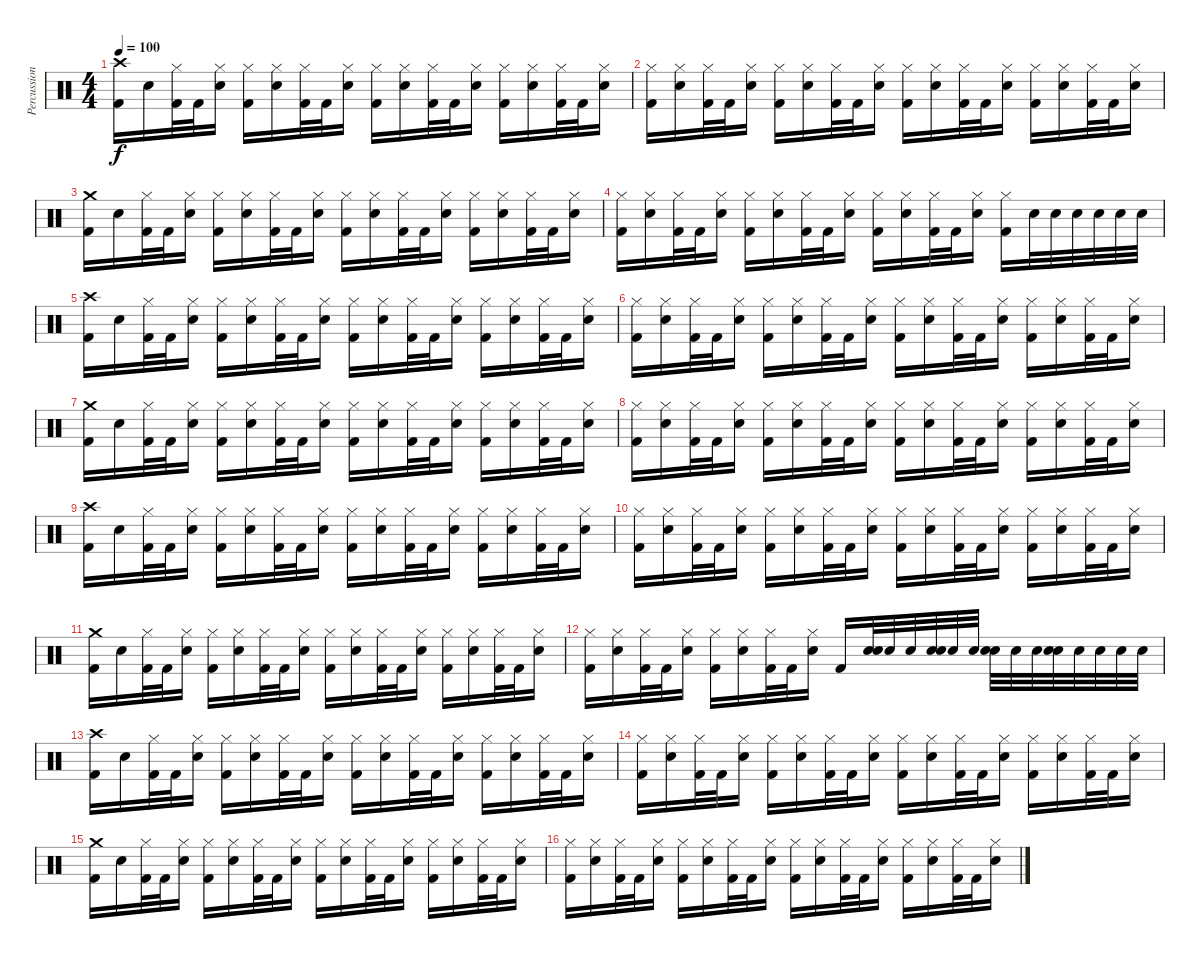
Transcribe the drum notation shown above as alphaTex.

\track ("Percussion" "Percussion") {instrument percussion}
\staff {score}
\articulation defaults
\ts (4 4)
\tempo 100
\clef neutral
\ks c
("Crash high (hit)" "Kick (hit) 2").16{dy f} "Snare (hit) 2".16 ("Hi-Hat (closed)" "Kick (hit) 2").32 "Kick (hit) 2".32 ("Hi-Hat (closed)" "Snare (hit) 2").16 ("Hi-Hat (closed)" "Kick (hit) 2").16 ("Hi-Hat (closed)" "Snare (hit) 2").16 ("Hi-Hat (closed)" "Kick (hit) 2").32 "Kick (hit) 2".32 ("Hi-Hat (closed)" "Snare (hit) 2").16 ("Hi-Hat (closed)" "Kick (hit) 2").16 ("Hi-Hat (closed)" "Snare (hit) 2").16 ("Hi-Hat (closed)" "Kick (hit) 2").32 "Kick (hit) 2".32 ("Hi-Hat (closed)" "Snare (hit) 2").16 ("Hi-Hat (closed)" "Kick (hit) 2").16 ("Hi-Hat (closed)" "Snare (hit) 2").16 ("Hi-Hat (closed)" "Kick (hit) 2").32 "Kick (hit) 2".32 ("Hi-Hat (closed)" "Snare (hit) 2").16 |
("Hi-Hat (closed)" "Kick (hit) 2").16 ("Hi-Hat (closed)" "Snare (hit) 2").16 ("Hi-Hat (closed)" "Kick (hit) 2").32 "Kick (hit) 2".32 ("Hi-Hat (closed)" "Snare (hit) 2").16 ("Hi-Hat (closed)" "Kick (hit) 2").16 ("Hi-Hat (closed)" "Snare (hit) 2").16 ("Hi-Hat (closed)" "Kick (hit) 2").32 "Kick (hit) 2".32 ("Hi-Hat (closed)" "Snare (hit) 2").16 ("Hi-Hat (closed)" "Kick (hit) 2").16 ("Hi-Hat (closed)" "Snare (hit) 2").16 ("Hi-Hat (closed)" "Kick (hit) 2").32 "Kick (hit) 2".32 ("Hi-Hat (closed)" "Snare (hit) 2").16 ("Hi-Hat (closed)" "Kick (hit) 2").16 ("Hi-Hat (closed)" "Snare (hit) 2").16 ("Hi-Hat (closed)" "Kick (hit) 2").32 "Kick (hit) 2".32 ("Hi-Hat (closed)" "Snare (hit) 2").16 |
("Crash medium (hit)" "Kick (hit) 2").16 "Snare (hit) 2".16 ("Hi-Hat (closed)" "Kick (hit) 2").32 "Kick (hit) 2".32 ("Hi-Hat (closed)" "Snare (hit) 2").16 ("Hi-Hat (closed)" "Kick (hit) 2").16 ("Hi-Hat (closed)" "Snare (hit) 2").16 ("Hi-Hat (closed)" "Kick (hit) 2").32 "Kick (hit) 2".32 ("Hi-Hat (closed)" "Snare (hit) 2").16 ("Hi-Hat (closed)" "Kick (hit) 2").16 ("Hi-Hat (closed)" "Snare (hit) 2").16 ("Hi-Hat (closed)" "Kick (hit) 2").32 "Kick (hit) 2".32 ("Hi-Hat (closed)" "Snare (hit) 2").16 ("Hi-Hat (closed)" "Kick (hit) 2").16 ("Hi-Hat (closed)" "Snare (hit) 2").16 ("Hi-Hat (closed)" "Kick (hit) 2").32 "Kick (hit) 2".32 ("Hi-Hat (closed)" "Snare (hit) 2").16 |
("Hi-Hat (closed)" "Kick (hit) 2").16 ("Hi-Hat (closed)" "Snare (hit) 2").16 ("Hi-Hat (closed)" "Kick (hit) 2").32 "Kick (hit) 2".32 ("Hi-Hat (closed)" "Snare (hit) 2").16 ("Hi-Hat (closed)" "Kick (hit) 2").16 ("Hi-Hat (closed)" "Snare (hit) 2").16 ("Hi-Hat (closed)" "Kick (hit) 2").32 "Kick (hit) 2".32 ("Hi-Hat (closed)" "Snare (hit) 2").16 ("Hi-Hat (closed)" "Kick (hit) 2").16 ("Hi-Hat (closed)" "Snare (hit) 2").16 ("Hi-Hat (closed)" "Kick (hit) 2").32 "Kick (hit) 2".32 ("Hi-Hat (closed)" "Snare (hit) 2").16 ("Hi-Hat (closed)" "Kick (hit) 2").16 "Snare (hit) 2".32 "Snare (hit) 2".32 "Snare (hit) 2".32 "Snare (hit) 2".32 "Snare (hit) 2".32 "Snare (hit) 2".32 |
("Crash high (hit)" "Kick (hit) 2").16 "Snare (hit) 2".16 ("Hi-Hat (closed)" "Kick (hit) 2").32 "Kick (hit) 2".32 ("Hi-Hat (closed)" "Snare (hit) 2").16 ("Hi-Hat (closed)" "Kick (hit) 2").16 ("Hi-Hat (closed)" "Snare (hit) 2").16 ("Hi-Hat (closed)" "Kick (hit) 2").32 "Kick (hit) 2".32 ("Hi-Hat (closed)" "Snare (hit) 2").16 ("Hi-Hat (closed)" "Kick (hit) 2").16 ("Hi-Hat (closed)" "Snare (hit) 2").16 ("Hi-Hat (closed)" "Kick (hit) 2").32 "Kick (hit) 2".32 ("Hi-Hat (closed)" "Snare (hit) 2").16 ("Hi-Hat (closed)" "Kick (hit) 2").16 ("Hi-Hat (closed)" "Snare (hit) 2").16 ("Hi-Hat (closed)" "Kick (hit) 2").32 "Kick (hit) 2".32 ("Hi-Hat (closed)" "Snare (hit) 2").16 |
("Hi-Hat (closed)" "Kick (hit) 2").16 ("Hi-Hat (closed)" "Snare (hit) 2").16 ("Hi-Hat (closed)" "Kick (hit) 2").32 "Kick (hit) 2".32 ("Hi-Hat (closed)" "Snare (hit) 2").16 ("Hi-Hat (closed)" "Kick (hit) 2").16 ("Hi-Hat (closed)" "Snare (hit) 2").16 ("Hi-Hat (closed)" "Kick (hit) 2").32 "Kick (hit) 2".32 ("Hi-Hat (closed)" "Snare (hit) 2").16 ("Hi-Hat (closed)" "Kick (hit) 2").16 ("Hi-Hat (closed)" "Snare (hit) 2").16 ("Hi-Hat (closed)" "Kick (hit) 2").32 "Kick (hit) 2".32 ("Hi-Hat (closed)" "Snare (hit) 2").16 ("Hi-Hat (closed)" "Kick (hit) 2").16 ("Hi-Hat (closed)" "Snare (hit) 2").16 ("Hi-Hat (closed)" "Kick (hit) 2").32 "Kick (hit) 2".32 ("Hi-Hat (closed)" "Snare (hit) 2").16 |
("Crash medium (hit)" "Kick (hit) 2").16 "Snare (hit) 2".16 ("Hi-Hat (closed)" "Kick (hit) 2").32 "Kick (hit) 2".32 ("Hi-Hat (closed)" "Snare (hit) 2").16 ("Hi-Hat (closed)" "Kick (hit) 2").16 ("Hi-Hat (closed)" "Snare (hit) 2").16 ("Hi-Hat (closed)" "Kick (hit) 2").32 "Kick (hit) 2".32 ("Hi-Hat (closed)" "Snare (hit) 2").16 ("Hi-Hat (closed)" "Kick (hit) 2").16 ("Hi-Hat (closed)" "Snare (hit) 2").16 ("Hi-Hat (closed)" "Kick (hit) 2").32 "Kick (hit) 2".32 ("Hi-Hat (closed)" "Snare (hit) 2").16 ("Hi-Hat (closed)" "Kick (hit) 2").16 ("Hi-Hat (closed)" "Snare (hit) 2").16 ("Hi-Hat (closed)" "Kick (hit) 2").32 "Kick (hit) 2".32 ("Hi-Hat (closed)" "Snare (hit) 2").16 |
("Hi-Hat (closed)" "Kick (hit) 2").16 ("Hi-Hat (closed)" "Snare (hit) 2").16 ("Hi-Hat (closed)" "Kick (hit) 2").32 "Kick (hit) 2".32 ("Hi-Hat (closed)" "Snare (hit) 2").16 ("Hi-Hat (closed)" "Kick (hit) 2").16 ("Hi-Hat (closed)" "Snare (hit) 2").16 ("Hi-Hat (closed)" "Kick (hit) 2").32 "Kick (hit) 2".32 ("Hi-Hat (closed)" "Snare (hit) 2").16 ("Hi-Hat (closed)" "Kick (hit) 2").16 ("Hi-Hat (closed)" "Snare (hit) 2").16 ("Hi-Hat (closed)" "Kick (hit) 2").32 "Kick (hit) 2".32 ("Hi-Hat (closed)" "Snare (hit) 2").16 ("Hi-Hat (closed)" "Kick (hit) 2").16 ("Hi-Hat (closed)" "Snare (hit) 2").16 ("Hi-Hat (closed)" "Kick (hit) 2").32 "Kick (hit) 2".32 ("Hi-Hat (closed)" "Snare (hit) 2").16 |
("Crash high (hit)" "Kick (hit) 2").16 "Snare (hit) 2".16 ("Hi-Hat (closed)" "Kick (hit) 2").32 "Kick (hit) 2".32 ("Hi-Hat (closed)" "Snare (hit) 2").16 ("Hi-Hat (closed)" "Kick (hit) 2").16 ("Hi-Hat (closed)" "Snare (hit) 2").16 ("Hi-Hat (closed)" "Kick (hit) 2").32 "Kick (hit) 2".32 ("Hi-Hat (closed)" "Snare (hit) 2").16 ("Hi-Hat (closed)" "Kick (hit) 2").16 ("Hi-Hat (closed)" "Snare (hit) 2").16 ("Hi-Hat (closed)" "Kick (hit) 2").32 "Kick (hit) 2".32 ("Hi-Hat (closed)" "Snare (hit) 2").16 ("Hi-Hat (closed)" "Kick (hit) 2").16 ("Hi-Hat (closed)" "Snare (hit) 2").16 ("Hi-Hat (closed)" "Kick (hit) 2").32 "Kick (hit) 2".32 ("Hi-Hat (closed)" "Snare (hit) 2").16 |
("Hi-Hat (closed)" "Kick (hit) 2").16 ("Hi-Hat (closed)" "Snare (hit) 2").16 ("Hi-Hat (closed)" "Kick (hit) 2").32 "Kick (hit) 2".32 ("Hi-Hat (closed)" "Snare (hit) 2").16 ("Hi-Hat (closed)" "Kick (hit) 2").16 ("Hi-Hat (closed)" "Snare (hit) 2").16 ("Hi-Hat (closed)" "Kick (hit) 2").32 "Kick (hit) 2".32 ("Hi-Hat (closed)" "Snare (hit) 2").16 ("Hi-Hat (closed)" "Kick (hit) 2").16 ("Hi-Hat (closed)" "Snare (hit) 2").16 ("Hi-Hat (closed)" "Kick (hit) 2").32 "Kick (hit) 2".32 ("Hi-Hat (closed)" "Snare (hit) 2").16 ("Hi-Hat (closed)" "Kick (hit) 2").16 ("Hi-Hat (closed)" "Snare (hit) 2").16 ("Hi-Hat (closed)" "Kick (hit) 2").32 "Kick (hit) 2".32 ("Hi-Hat (closed)" "Snare (hit) 2").16 |
("Crash medium (hit)" "Kick (hit) 2").16 "Snare (hit) 2".16 ("Hi-Hat (closed)" "Kick (hit) 2").32 "Kick (hit) 2".32 ("Hi-Hat (closed)" "Snare (hit) 2").16 ("Hi-Hat (closed)" "Kick (hit) 2").16 ("Hi-Hat (closed)" "Snare (hit) 2").16 ("Hi-Hat (closed)" "Kick (hit) 2").32 "Kick (hit) 2".32 ("Hi-Hat (closed)" "Snare (hit) 2").16 ("Hi-Hat (closed)" "Kick (hit) 2").16 ("Hi-Hat (closed)" "Snare (hit) 2").16 ("Hi-Hat (closed)" "Kick (hit) 2").32 "Kick (hit) 2".32 ("Hi-Hat (closed)" "Snare (hit) 2").16 ("Hi-Hat (closed)" "Kick (hit) 2").16 ("Hi-Hat (closed)" "Snare (hit) 2").16 ("Hi-Hat (closed)" "Kick (hit) 2").32 "Kick (hit) 2".32 ("Hi-Hat (closed)" "Snare (hit) 2").16 |
("Hi-Hat (closed)" "Kick (hit) 2").16 ("Hi-Hat (closed)" "Snare (hit) 2").16 ("Hi-Hat (closed)" "Kick (hit) 2").32 "Kick (hit) 2".32 ("Hi-Hat (closed)" "Snare (hit) 2").16 ("Hi-Hat (closed)" "Kick (hit) 2").16 ("Hi-Hat (closed)" "Snare (hit) 2").16 ("Hi-Hat (closed)" "Kick (hit) 2").32 "Kick (hit) 2".32 ("Hi-Hat (closed)" "Snare (hit) 2").16 "Kick (hit) 2".16 ("Snare (hit) 2" "Snare (hit) 2").32 "Snare (hit) 2".32 "Snare (hit) 2".32 ("Snare (hit) 2" "Snare (hit) 2").32 "Snare (hit) 2".32 "Snare (hit) 2".32 ("Snare (hit) 2" "Snare (hit) 2").32 "Snare (hit) 2".32 "Snare (hit) 2".32 ("Snare (hit) 2" "Snare (hit) 2").32 "Snare (hit) 2".32 "Snare (hit) 2".32 "Snare (hit) 2".32 "Snare (hit) 2".32 |
("Crash high (hit)" "Kick (hit) 2").16 "Snare (hit) 2".16 ("Hi-Hat (closed)" "Kick (hit) 2").32 "Kick (hit) 2".32 ("Hi-Hat (closed)" "Snare (hit) 2").16 ("Hi-Hat (closed)" "Kick (hit) 2").16 ("Hi-Hat (closed)" "Snare (hit) 2").16 ("Hi-Hat (closed)" "Kick (hit) 2").32 "Kick (hit) 2".32 ("Hi-Hat (closed)" "Snare (hit) 2").16 ("Hi-Hat (closed)" "Kick (hit) 2").16 ("Hi-Hat (closed)" "Snare (hit) 2").16 ("Hi-Hat (closed)" "Kick (hit) 2").32 "Kick (hit) 2".32 ("Hi-Hat (closed)" "Snare (hit) 2").16 ("Hi-Hat (closed)" "Kick (hit) 2").16 ("Hi-Hat (closed)" "Snare (hit) 2").16 ("Hi-Hat (closed)" "Kick (hit) 2").32 "Kick (hit) 2".32 ("Hi-Hat (closed)" "Snare (hit) 2").16 |
("Hi-Hat (closed)" "Kick (hit) 2").16 ("Hi-Hat (closed)" "Snare (hit) 2").16 ("Hi-Hat (closed)" "Kick (hit) 2").32 "Kick (hit) 2".32 ("Hi-Hat (closed)" "Snare (hit) 2").16 ("Hi-Hat (closed)" "Kick (hit) 2").16 ("Hi-Hat (closed)" "Snare (hit) 2").16 ("Hi-Hat (closed)" "Kick (hit) 2").32 "Kick (hit) 2".32 ("Hi-Hat (closed)" "Snare (hit) 2").16 ("Hi-Hat (closed)" "Kick (hit) 2").16 ("Hi-Hat (closed)" "Snare (hit) 2").16 ("Hi-Hat (closed)" "Kick (hit) 2").32 "Kick (hit) 2".32 ("Hi-Hat (closed)" "Snare (hit) 2").16 ("Hi-Hat (closed)" "Kick (hit) 2").16 ("Hi-Hat (closed)" "Snare (hit) 2").16 ("Hi-Hat (closed)" "Kick (hit) 2").32 "Kick (hit) 2".32 ("Hi-Hat (closed)" "Snare (hit) 2").16 |
("Crash medium (hit)" "Kick (hit) 2").16 "Snare (hit) 2".16 ("Hi-Hat (closed)" "Kick (hit) 2").32 "Kick (hit) 2".32 ("Hi-Hat (closed)" "Snare (hit) 2").16 ("Hi-Hat (closed)" "Kick (hit) 2").16 ("Hi-Hat (closed)" "Snare (hit) 2").16 ("Hi-Hat (closed)" "Kick (hit) 2").32 "Kick (hit) 2".32 ("Hi-Hat (closed)" "Snare (hit) 2").16 ("Hi-Hat (closed)" "Kick (hit) 2").16 ("Hi-Hat (closed)" "Snare (hit) 2").16 ("Hi-Hat (closed)" "Kick (hit) 2").32 "Kick (hit) 2".32 ("Hi-Hat (closed)" "Snare (hit) 2").16 ("Hi-Hat (closed)" "Kick (hit) 2").16 ("Hi-Hat (closed)" "Snare (hit) 2").16 ("Hi-Hat (closed)" "Kick (hit) 2").32 "Kick (hit) 2".32 ("Hi-Hat (closed)" "Snare (hit) 2").16 |
("Hi-Hat (closed)" "Kick (hit) 2").16 ("Hi-Hat (closed)" "Snare (hit) 2").16 ("Hi-Hat (closed)" "Kick (hit) 2").32 "Kick (hit) 2".32 ("Hi-Hat (closed)" "Snare (hit) 2").16 ("Hi-Hat (closed)" "Kick (hit) 2").16 ("Hi-Hat (closed)" "Snare (hit) 2").16 ("Hi-Hat (closed)" "Kick (hit) 2").32 "Kick (hit) 2".32 ("Hi-Hat (closed)" "Snare (hit) 2").16 ("Hi-Hat (closed)" "Kick (hit) 2").16 ("Hi-Hat (closed)" "Snare (hit) 2").16 ("Hi-Hat (closed)" "Kick (hit) 2").32 "Kick (hit) 2".32 ("Hi-Hat (closed)" "Snare (hit) 2").16 ("Hi-Hat (closed)" "Kick (hit) 2").16 ("Hi-Hat (closed)" "Snare (hit) 2").16 ("Hi-Hat (closed)" "Kick (hit) 2").32 "Kick (hit) 2".32 ("Hi-Hat (closed)" "Snare (hit) 2").16
